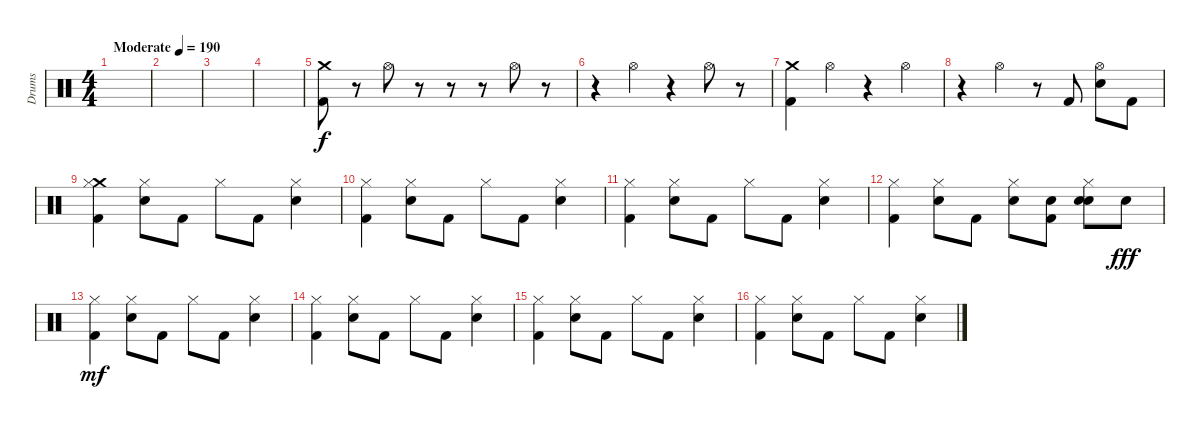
\track ("Drums" "Drums") {instrument percussion}
\staff {score}
\articulation defaults
\ts (4 4)
\tempo (190 "Moderate")
\clef neutral
\ks c
|
|
|
|
("Crash medium (hit)" "Kick (hit) 2").8 r.8 "Hi-Hat (open)".8 r.8 r.8 r.8 "Hi-Hat (open)".8 r.8 |
r.4 "Hi-Hat (open)".4 r.4 "Hi-Hat (open)".8 r.8 |
("Crash medium (hit)" "Kick (hit) 2").4 "Hi-Hat (open)".4 r.4 "Hi-Hat (open)".4 |
r.4 "Hi-Hat (open)".4 r.8 "Kick (hit) 2".8 ("Hi-Hat (open)" "Electric Snare (hit)").8 "Kick (hit) 2".8 |
("Crash medium (hit)" "Hi-Hat (closed)" "Kick (hit) 2").4 ("Hi-Hat (closed)" "Snare (hit) 2").8 "Kick (hit) 2".8 "Hi-Hat (closed)".8 "Kick (hit) 2".8 ("Hi-Hat (closed)" "Snare (hit) 2").4 |
("Hi-Hat (closed)" "Kick (hit) 2").4 ("Hi-Hat (closed)" "Snare (hit) 2").8 "Kick (hit) 2".8 "Hi-Hat (closed)".8 "Kick (hit) 2".8 ("Hi-Hat (closed)" "Snare (hit) 2").4 |
("Hi-Hat (closed)" "Kick (hit) 2").4 ("Hi-Hat (closed)" "Snare (hit) 2").8 "Kick (hit) 2".8 "Hi-Hat (closed)".8 "Kick (hit) 2".8 ("Hi-Hat (closed)" "Snare (hit) 2").4 |
("Hi-Hat (closed)" "Kick (hit) 2").4 ("Hi-Hat (closed)" "Snare (hit) 2").8 "Kick (hit) 2".8 ("Hand Clap (hit)" "Hi-Hat (closed)").8 ("Hand Clap (hit)" "Kick (hit) 2").8 ("Hand Clap (hit)" "Hi-Hat (closed)" "Snare (hit) 2").8 "Hand Clap (hit)".8{dy fff} |
("Hi-Hat (closed)" "Kick (hit) 2").4{dy mf} ("Hi-Hat (closed)" "Snare (hit) 2").8 "Kick (hit) 2".8 "Hi-Hat (closed)".8 "Kick (hit) 2".8 ("Hi-Hat (closed)" "Snare (hit) 2").4 |
("Hi-Hat (closed)" "Kick (hit) 2").4 ("Hi-Hat (closed)" "Snare (hit) 2").8 "Kick (hit) 2".8 "Hi-Hat (closed)".8 "Kick (hit) 2".8 ("Hi-Hat (closed)" "Snare (hit) 2").4 |
("Hi-Hat (closed)" "Kick (hit) 2").4 ("Hi-Hat (closed)" "Snare (hit) 2").8 "Kick (hit) 2".8 "Hi-Hat (closed)".8 "Kick (hit) 2".8 ("Hi-Hat (closed)" "Snare (hit) 2").4 |
("Hi-Hat (closed)" "Kick (hit) 2").4 ("Hi-Hat (closed)" "Snare (hit) 2").8 "Kick (hit) 2".8 "Hi-Hat (closed)".8 "Kick (hit) 2".8 ("Hi-Hat (closed)" "Snare (hit) 2").4
